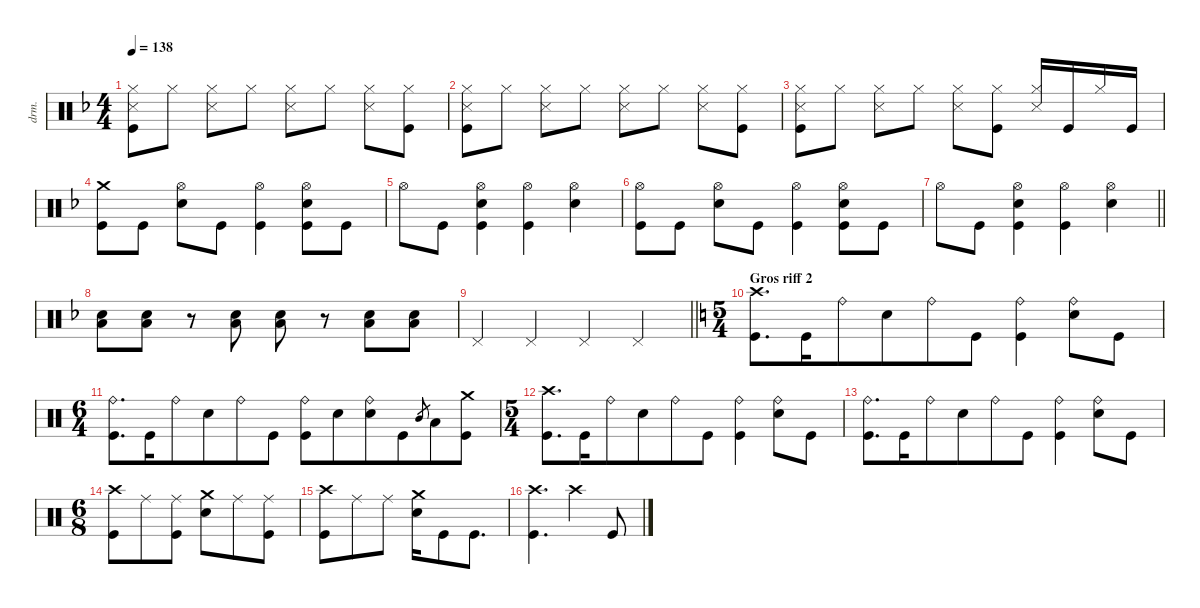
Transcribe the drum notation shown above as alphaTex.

\defaultSystemsLayout 4
\hideDynamics
\bracketExtendMode nobrackets
\track ("Percussions" "drm.") {instrument percussion}
\staff {score}
\articulation defaults
\ts (4 4)
\tempo 138
\clef neutral
\ks dminor
("Snare (side stick) 3"{acc forcenatural} "Kick (hit)"{acc forcenatural} "Hi-Hat (closed)"{acc forcenatural}).8{dy f beam Down} "Hi-Hat (closed)"{acc forcenatural}.8{beam Down} ("Snare (side stick) 3"{acc forcenatural} "Hi-Hat (closed)"{acc forcenatural}).8{beam Down} "Hi-Hat (closed)"{acc forcenatural}.8{beam Down} ("Snare (side stick) 3"{acc forcenatural} "Hi-Hat (closed)"{acc forcenatural}).8{beam Down} "Hi-Hat (closed)"{acc forcenatural}.8{beam Down} ("Snare (side stick) 3"{acc forcenatural} "Hi-Hat (closed)"{acc forcenatural}).8{beam Down} ("Hi-Hat (closed)"{acc forcenatural} "Kick (hit)"{acc forcenatural}).8{beam Down} |
("Snare (side stick) 3"{acc forcenatural} "Kick (hit)"{acc forcenatural} "Hi-Hat (closed)"{acc forcenatural}).8{beam Down} "Hi-Hat (closed)"{acc forcenatural}.8{beam Down} ("Snare (side stick) 3"{acc forcenatural} "Hi-Hat (closed)"{acc forcenatural}).8{beam Down} "Hi-Hat (closed)"{acc forcenatural}.8{beam Down} ("Snare (side stick) 3"{acc forcenatural} "Hi-Hat (closed)"{acc forcenatural}).8{beam Down} "Hi-Hat (closed)"{acc forcenatural}.8{beam Down} ("Snare (side stick) 3"{acc forcenatural} "Hi-Hat (closed)"{acc forcenatural}).8{beam Down} ("Hi-Hat (closed)"{acc forcenatural} "Kick (hit)"{acc forcenatural}).8{beam Down} |
("Snare (side stick) 3"{acc forcenatural} "Kick (hit)"{acc forcenatural} "Hi-Hat (closed)"{acc forcenatural}).8{beam Down} "Hi-Hat (closed)"{acc forcenatural}.8{beam Down} ("Snare (side stick) 3"{acc forcenatural} "Hi-Hat (closed)"{acc forcenatural}).8{beam Down} "Hi-Hat (closed)"{acc forcenatural}.8{beam Down} ("Snare (side stick) 3"{acc forcenatural} "Hi-Hat (closed)"{acc forcenatural}).8{beam Down} ("Hi-Hat (closed)"{acc forcenatural} "Kick (hit)"{acc forcenatural}).8{beam Down} ("Snare (side stick) 3"{acc forcenatural} "Hi-Hat (closed)"{acc forcenatural}).16{beam Up} "Kick (hit)"{acc forcenatural}.16{beam Up} "Hi-Hat (closed)"{acc forcenatural}.16{beam Up} "Kick (hit)"{acc forcenatural}.16{beam Up} |
("Crash medium (hit)"{acc forcenatural} "Kick (hit)"{acc forcenatural}).8{beam Down} "Kick (hit)"{acc forcenatural}.8{beam Down} ("Hi-Hat (open)"{acc forcenatural} "Snare (hit) 2"{acc forcenatural}).8{beam Down} "Kick (hit)"{acc forcenatural}.8{beam Down} ("Hi-Hat (open)"{acc forcenatural} "Kick (hit)"{acc forcenatural}).4{beam Down} ("Hi-Hat (open)"{acc forcenatural} "Snare (hit) 2"{acc forcenatural} "Kick (hit)"{acc forcenatural}).8{beam Down} "Kick (hit)"{acc forcenatural}.8{beam Down} |
"Hi-Hat (open)"{acc forcenatural}.8{beam Down} "Kick (hit)"{acc forcenatural}.8{beam Down} ("Hi-Hat (open)"{acc forcenatural} "Snare (hit) 2"{acc forcenatural} "Kick (hit)"{acc forcenatural}).4{beam Down} ("Hi-Hat (open)"{acc forcenatural} "Kick (hit)"{acc forcenatural}).4{beam Down} ("Hi-Hat (open)"{acc forcenatural} "Snare (hit) 2"{acc forcenatural}).4{beam Down} |
("Hi-Hat (open)"{acc forcenatural} "Kick (hit)"{acc forcenatural}).8{beam Down} "Kick (hit)"{acc forcenatural}.8{beam Down} ("Hi-Hat (open)"{acc forcenatural} "Snare (hit) 2"{acc forcenatural}).8{beam Down} "Kick (hit)"{acc forcenatural}.8{beam Down} ("Hi-Hat (open)"{acc forcenatural} "Kick (hit)"{acc forcenatural}).4{beam Down} ("Hi-Hat (open)"{acc forcenatural} "Snare (hit) 2"{acc forcenatural} "Kick (hit)"{acc forcenatural}).8{beam Down} "Kick (hit)"{acc forcenatural}.8{beam Down} |
\barLineRight lightlight "Hi-Hat (open)"{acc forcenatural}.8{beam Down} "Kick (hit)"{acc forcenatural}.8{beam Down}
("Hi-Hat (open)"{acc forcenatural} "Snare (hit) 2"{acc forcenatural} "Kick (hit)"{acc forcenatural}).4{beam Down} ("Hi-Hat (open)"{acc forcenatural} "Kick (hit)"{acc forcenatural}).4{beam Down} ("Hi-Hat (open)"{acc forcenatural} "Snare (hit) 2"{acc forcenatural}).4{beam Down} |
("Snare (hit) 2"{acc forcenatural} "Low Tom (hit)"{acc forcenatural}).8{beam Down} ("Snare (hit) 2"{acc forcenatural} "Low Tom (hit)"{acc forcenatural}).8{beam Down} r.8{beam Down} ("Snare (hit) 2"{acc forcenatural} "Low Tom (hit)"{acc forcenatural}).8{beam Down} ("Snare (hit) 2"{acc forcenatural} "Low Tom (hit)"{acc forcenatural}).8{beam Down} r.8{beam Down} ("Snare (hit) 2"{acc forcenatural} "Low Tom (hit)"{acc forcenatural}).8{beam Down} ("Snare (hit) 2"{acc forcenatural} "Low Tom (hit)"{acc forcenatural}).8{beam Down} |
\barLineRight lightlight "Pedal Hi-Hat (hit)"{acc forcenatural}.4{beam Up} "Pedal Hi-Hat (hit)"{acc forcenatural}.4{beam Up} "Pedal Hi-Hat (hit)"{acc forcenatural}.4{beam Up} "Pedal Hi-Hat (hit)"{acc forcenatural}.4{beam Up}
|
\ts (5 4)
\beaming (8 6 4)
\section ("" "Gros riff 2")
\ks aminor
("Crash high (hit)" "Kick (hit)").8{d beam Down} "Kick (hit)".16{beam Down} "Ride (bell)".8{beam Down} "Snare (hit) 2".8{beam Down} "Ride (bell)".8{beam Down} "Kick (hit)".8{beam Down} ("Kick (hit)" "Ride (bell)").4{beam Down} ("Ride (bell)" "Snare (hit) 2").8{beam Down} "Kick (hit)".8{beam Down} |
\ts (6 4)
\beaming (8 6 6)
("Ride (bell)" "Kick (hit)").8{d beam Down} "Kick (hit)".16{beam Down} "Ride (bell)".8{beam Down} "Snare (hit) 2".8{beam Down} "Ride (bell)".8{beam Down} "Kick (hit)".8{beam Down} ("Kick (hit)" "Ride (bell)").8{beam Down} "Snare (hit) 2".8{beam Down} ("Ride (bell)" "Snare (hit) 2").8{beam Down} "Kick (hit)".8{beam Down} "Mid Tom (hit)".8{gr beam Up} "Low Tom (hit)".8{beam Down} ("Crash medium (hit)" "Kick (hit)").8{beam Down} |
\ts (5 4)
\beaming (8 6 4)
("Crash high (hit)" "Kick (hit)").8{d beam Down} "Kick (hit)".16{beam Down} "Ride (bell)".8{beam Down} "Snare (hit) 2".8{beam Down} "Ride (bell)".8{beam Down} "Kick (hit)".8{beam Down} ("Kick (hit)" "Ride (bell)").4{beam Down} ("Ride (bell)" "Snare (hit) 2").8{beam Down} "Kick (hit)".8{beam Down} |
("Ride (bell)" "Kick (hit)").8{d beam Down} "Kick (hit)".16{beam Down} "Ride (bell)".8{beam Down} "Snare (hit) 2".8{beam Down} "Ride (bell)".8{beam Down} "Kick (hit)".8{beam Down} ("Kick (hit)" "Ride (bell)").4{beam Down} ("Ride (bell)" "Snare (hit) 2").8{beam Down} "Kick (hit)".8{beam Down} |
\ts (6 8)
\beaming (8 3 3)
("Crash high (hit)" "Kick (hit)").8{beam Down} "Ride (middle)".8{beam Down} ("Ride (middle)" "Kick (hit)").8{beam Down} ("Crash medium (hit)" "Snare (hit) 2").8{beam Down} "Ride (middle)".8{beam Down} ("Ride (middle)" "Kick (hit)").8{beam Down} |
("Crash high (hit)" "Kick (hit)").8{beam Down} "Ride (middle)".8{beam Down} "Ride (middle)".8{beam Down} ("Crash medium (hit)" "Snare (hit) 2").16{beam Down} "Kick (hit)".8{beam Down} "Kick (hit)".8{d beam Down} |
("Crash high (hit)" "Kick (hit)").4{d beam Down} "Crash high (hit)".4{beam Down} "Kick (hit)".8{beam Up}
